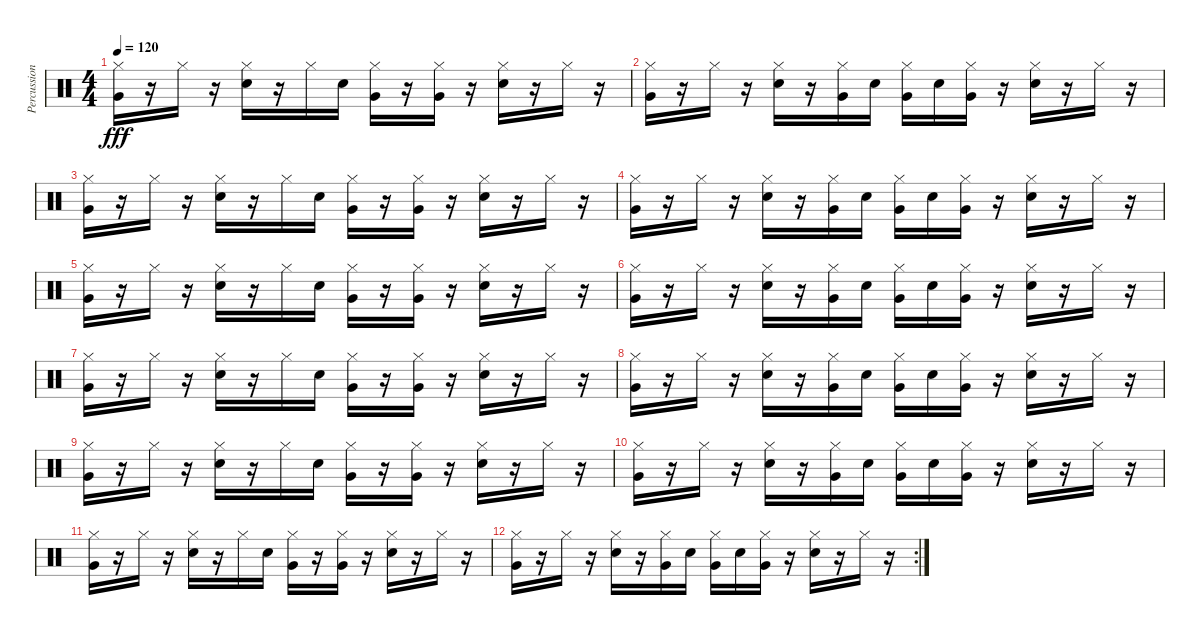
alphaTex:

\track ("Percussion" "Percussion") {instrument percussion}
\staff {score}
\articulation defaults
\ts (4 4)
\tempo 120
\clef neutral
\ks c
("Hi-Hat (closed)" "Very Low Tom (hit)").16{dy fff} r.16 "Hi-Hat (closed)".16 r.16 ("Hi-Hat (closed)" "Snare (hit) 2").16 r.16 "Hi-Hat (closed)".16 "Snare (hit) 2".16 ("Hi-Hat (closed)" "Very Low Tom (hit)").16 r.16 ("Hi-Hat (closed)" "Very Low Tom (hit)").16 r.16 ("Hi-Hat (closed)" "Snare (hit) 2").16 r.16 "Hi-Hat (closed)".16 r.16 |
("Hi-Hat (closed)" "Very Low Tom (hit)").16 r.16 "Hi-Hat (closed)".16 r.16 ("Hi-Hat (closed)" "Snare (hit) 2").16 r.16 ("Hi-Hat (closed)" "Very Low Tom (hit)").16 "Snare (hit) 2".16 ("Hi-Hat (closed)" "Very Low Tom (hit)").16 "Snare (hit) 2".16 ("Hi-Hat (closed)" "Very Low Tom (hit)").16 r.16 ("Hi-Hat (closed)" "Snare (hit) 2").16 r.16 "Hi-Hat (closed)".16 r.16 |
("Hi-Hat (closed)" "Very Low Tom (hit)").16 r.16 "Hi-Hat (closed)".16 r.16 ("Hi-Hat (closed)" "Snare (hit) 2").16 r.16 "Hi-Hat (closed)".16 "Snare (hit) 2".16 ("Hi-Hat (closed)" "Very Low Tom (hit)").16 r.16 ("Hi-Hat (closed)" "Very Low Tom (hit)").16 r.16 ("Hi-Hat (closed)" "Snare (hit) 2").16 r.16 "Hi-Hat (closed)".16 r.16 |
("Hi-Hat (closed)" "Very Low Tom (hit)").16 r.16 "Hi-Hat (closed)".16 r.16 ("Hi-Hat (closed)" "Snare (hit) 2").16 r.16 ("Hi-Hat (closed)" "Very Low Tom (hit)").16 "Snare (hit) 2".16 ("Hi-Hat (closed)" "Very Low Tom (hit)").16 "Snare (hit) 2".16 ("Hi-Hat (closed)" "Very Low Tom (hit)").16 r.16 ("Hi-Hat (closed)" "Snare (hit) 2").16 r.16 "Hi-Hat (closed)".16 r.16 |
("Hi-Hat (closed)" "Very Low Tom (hit)").16 r.16 "Hi-Hat (closed)".16 r.16 ("Hi-Hat (closed)" "Snare (hit) 2").16 r.16 "Hi-Hat (closed)".16 "Snare (hit) 2".16 ("Hi-Hat (closed)" "Very Low Tom (hit)").16 r.16 ("Hi-Hat (closed)" "Very Low Tom (hit)").16 r.16 ("Hi-Hat (closed)" "Snare (hit) 2").16 r.16 "Hi-Hat (closed)".16 r.16 |
("Hi-Hat (closed)" "Very Low Tom (hit)").16 r.16 "Hi-Hat (closed)".16 r.16 ("Hi-Hat (closed)" "Snare (hit) 2").16 r.16 ("Hi-Hat (closed)" "Very Low Tom (hit)").16 "Snare (hit) 2".16 ("Hi-Hat (closed)" "Very Low Tom (hit)").16 "Snare (hit) 2".16 ("Hi-Hat (closed)" "Very Low Tom (hit)").16 r.16 ("Hi-Hat (closed)" "Snare (hit) 2").16 r.16 "Hi-Hat (closed)".16 r.16 |
("Hi-Hat (closed)" "Very Low Tom (hit)").16 r.16 "Hi-Hat (closed)".16 r.16 ("Hi-Hat (closed)" "Snare (hit) 2").16 r.16 "Hi-Hat (closed)".16 "Snare (hit) 2".16 ("Hi-Hat (closed)" "Very Low Tom (hit)").16 r.16 ("Hi-Hat (closed)" "Very Low Tom (hit)").16 r.16 ("Hi-Hat (closed)" "Snare (hit) 2").16 r.16 "Hi-Hat (closed)".16 r.16 |
("Hi-Hat (closed)" "Very Low Tom (hit)").16 r.16 "Hi-Hat (closed)".16 r.16 ("Hi-Hat (closed)" "Snare (hit) 2").16 r.16 ("Hi-Hat (closed)" "Very Low Tom (hit)").16 "Snare (hit) 2".16 ("Hi-Hat (closed)" "Very Low Tom (hit)").16 "Snare (hit) 2".16 ("Hi-Hat (closed)" "Very Low Tom (hit)").16 r.16 ("Hi-Hat (closed)" "Snare (hit) 2").16 r.16 "Hi-Hat (closed)".16 r.16 |
("Hi-Hat (closed)" "Very Low Tom (hit)").16 r.16 "Hi-Hat (closed)".16 r.16 ("Hi-Hat (closed)" "Snare (hit) 2").16 r.16 "Hi-Hat (closed)".16 "Snare (hit) 2".16 ("Hi-Hat (closed)" "Very Low Tom (hit)").16 r.16 ("Hi-Hat (closed)" "Very Low Tom (hit)").16 r.16 ("Hi-Hat (closed)" "Snare (hit) 2").16 r.16 "Hi-Hat (closed)".16 r.16 |
("Hi-Hat (closed)" "Very Low Tom (hit)").16 r.16 "Hi-Hat (closed)".16 r.16 ("Hi-Hat (closed)" "Snare (hit) 2").16 r.16 ("Hi-Hat (closed)" "Very Low Tom (hit)").16 "Snare (hit) 2".16 ("Hi-Hat (closed)" "Very Low Tom (hit)").16 "Snare (hit) 2".16 ("Hi-Hat (closed)" "Very Low Tom (hit)").16 r.16 ("Hi-Hat (closed)" "Snare (hit) 2").16 r.16 "Hi-Hat (closed)".16 r.16 |
("Hi-Hat (closed)" "Very Low Tom (hit)").16 r.16 "Hi-Hat (closed)".16 r.16 ("Hi-Hat (closed)" "Snare (hit) 2").16 r.16 "Hi-Hat (closed)".16 "Snare (hit) 2".16 ("Hi-Hat (closed)" "Very Low Tom (hit)").16 r.16 ("Hi-Hat (closed)" "Very Low Tom (hit)").16 r.16 ("Hi-Hat (closed)" "Snare (hit) 2").16 r.16 "Hi-Hat (closed)".16 r.16 |
\rc 2
("Hi-Hat (closed)" "Very Low Tom (hit)").16 r.16 "Hi-Hat (closed)".16 r.16 ("Hi-Hat (closed)" "Snare (hit) 2").16 r.16 ("Hi-Hat (closed)" "Very Low Tom (hit)").16 "Snare (hit) 2".16 ("Hi-Hat (closed)" "Very Low Tom (hit)").16 "Snare (hit) 2".16 ("Hi-Hat (closed)" "Very Low Tom (hit)").16 r.16 ("Hi-Hat (closed)" "Snare (hit) 2").16 r.16 "Hi-Hat (closed)".16 r.16
